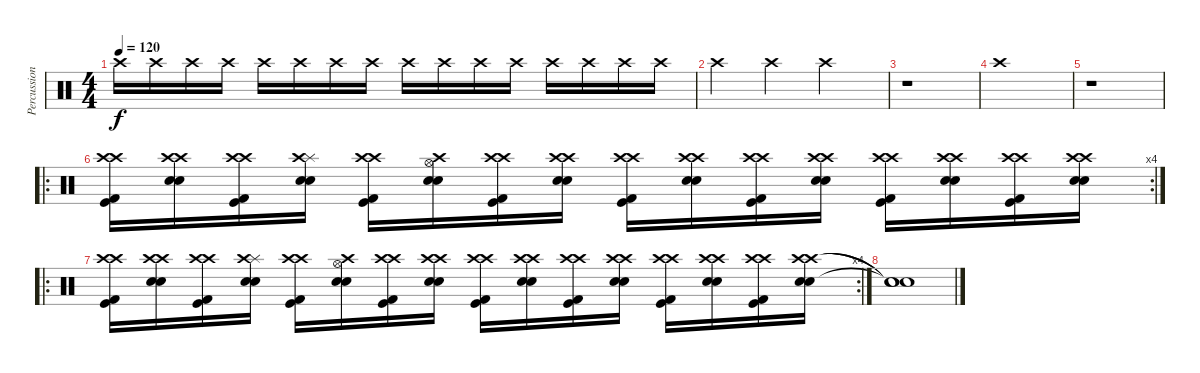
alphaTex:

\track ("Percussion" "Percussion") {instrument percussion}
\staff {score}
\articulation defaults
\ts (4 4)
\tempo 120
\clef neutral
\ks c "Crash high (hit)".16{dy f} "Crash high (hit)".16 "Crash high (hit)".16 "Crash high (hit)".16 "Crash high (hit)".16 "Crash high (hit)".16 "Crash high (hit)".16 "Crash high (hit)".16 "Crash high (hit)".16 "Crash high (hit)".16 "Crash high (hit)".16 "Crash high (hit)".16 "Crash high (hit)".16 "Crash high (hit)".16 "Crash high (hit)".16 "Crash high (hit)".16
|
"Crash high (hit)".4 "Crash high (hit)".4 "Crash high (hit)".2 |
r.1 |
"Crash high (hit)".1 |
r.1 |
\ro
\rc 4
("Crash high (hit)" "Crash high (hit)" "Kick (hit)" "Kick (hit) 2").16 ("Crash high (hit)" "Crash high (hit)" "Snare (hit) 2" "Electric Snare (hit)").16 ("Crash high (hit)" "Crash high (hit)" "Kick (hit)" "Kick (hit) 2").16 ("Splash (hit)" "Crash high (hit)" "Snare (hit) 2" "Electric Snare (hit)").16 ("Crash high (hit)" "Crash high (hit)" "Kick (hit)" "Kick (hit) 2").16 ("Crash high (hit)" "Hi-Hat (open)" "Electric Snare (hit)" "Snare (hit) 2").16 ("Crash high (hit)" "Crash high (hit)" "Kick (hit)" "Kick (hit) 2").16 ("Crash high (hit)" "Crash high (hit)" "Electric Snare (hit)" "Snare (hit) 2").16 ("Crash high (hit)" "Crash high (hit)" "Kick (hit)" "Kick (hit) 2").16 ("Crash high (hit)" "Crash high (hit)" "Snare (hit) 2" "Electric Snare (hit)").16 ("Crash high (hit)" "Crash high (hit)" "Kick (hit)" "Kick (hit) 2").16 ("Crash high (hit)" "Crash high (hit)" "Snare (hit) 2" "Electric Snare (hit)").16 ("Crash high (hit)" "Crash high (hit)" "Kick (hit)" "Kick (hit) 2").16 ("Crash high (hit)" "Crash high (hit)" "Snare (hit) 2" "Electric Snare (hit)").16 ("Crash high (hit)" "Crash high (hit)" "Kick (hit) 2" "Kick (hit)").16 ("Crash high (hit)" "Crash high (hit)" "Snare (hit) 2" "Electric Snare (hit)").16 |
\ro
\rc 4
("Crash high (hit)" "Crash high (hit)" "Kick (hit)" "Kick (hit) 2").16 ("Crash high (hit)" "Crash high (hit)" "Snare (hit) 2" "Electric Snare (hit)").16 ("Crash high (hit)" "Crash high (hit)" "Kick (hit)" "Kick (hit) 2").16 ("Splash (hit)" "Crash high (hit)" "Snare (hit) 2" "Electric Snare (hit)").16 ("Crash high (hit)" "Crash high (hit)" "Kick (hit)" "Kick (hit) 2").16 ("Crash high (hit)" "Hi-Hat (open)" "Electric Snare (hit)" "Snare (hit) 2").16 ("Crash high (hit)" "Crash high (hit)" "Kick (hit)" "Kick (hit) 2").16 ("Crash high (hit)" "Crash high (hit)" "Electric Snare (hit)" "Snare (hit) 2").16 ("Crash high (hit)" "Crash high (hit)" "Kick (hit)" "Kick (hit) 2").16 ("Crash high (hit)" "Crash high (hit)" "Snare (hit) 2" "Electric Snare (hit)").16 ("Crash high (hit)" "Crash high (hit)" "Kick (hit)" "Kick (hit) 2").16 ("Crash high (hit)" "Crash high (hit)" "Snare (hit) 2" "Electric Snare (hit)").16 ("Crash high (hit)" "Crash high (hit)" "Kick (hit)" "Kick (hit) 2").16 ("Crash high (hit)" "Crash high (hit)" "Snare (hit) 2" "Electric Snare (hit)").16 ("Crash high (hit)" "Crash high (hit)" "Kick (hit) 2" "Kick (hit)").16 ("Crash high (hit)" "Crash high (hit)" "Snare (hit) 2" "Electric Snare (hit)").16 |
("Snare (hit)"{t} "Snare (hit)"{t} "Snare (hit)"{t}).1
